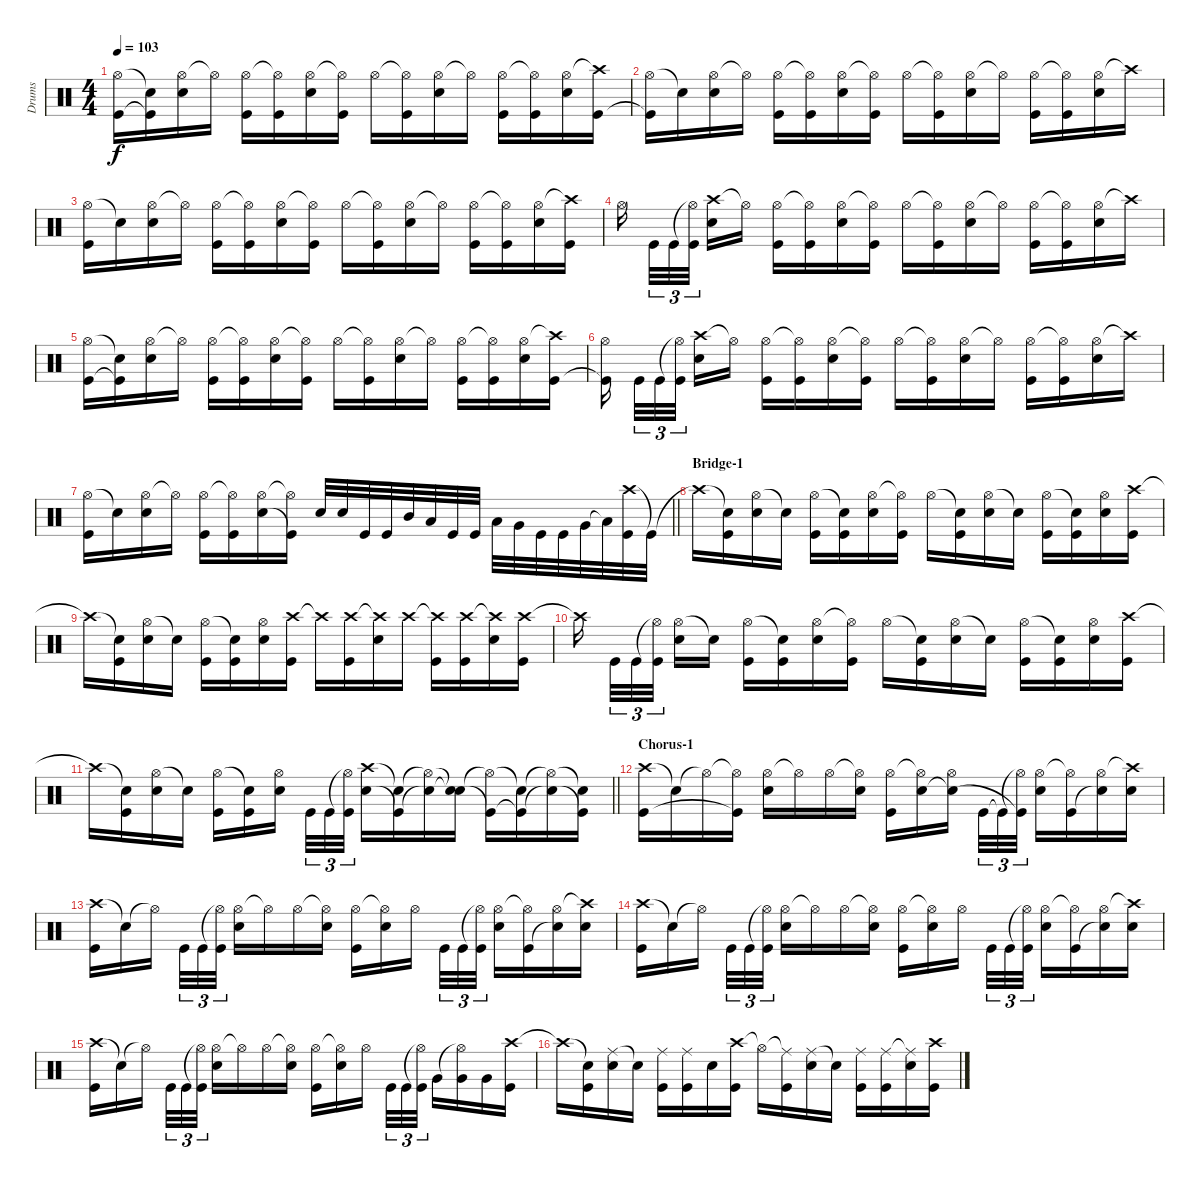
\track ("Drums" "Drums") {instrument percussion}
\staff {score}
\articulation defaults
\ts (4 4)
\tempo 103
\clef neutral
\ks c
("Hi-Hat (open)" "Kick (hit)").16{dy f} ("Snare (hit)"{t} "Kick (hit)"{t}).16 ("Hi-Hat (open)" "Electric Snare (hit)").16 "Hi-Hat (open)"{t}.16 ("Hi-Hat (open)" "Kick (hit)").16 ("Hi-Hat (open)"{t} "Kick (hit)").16 ("Hi-Hat (open)" "Electric Snare (hit)").16 ("Hi-Hat (open)"{t} "Kick (hit)").16 "Hi-Hat (open)".16 ("Hi-Hat (open)"{t} "Kick (hit)").16 ("Hi-Hat (open)" "Electric Snare (hit)").16 "Hi-Hat (open)"{t}.16 ("Hi-Hat (open)" "Kick (hit)").16 ("Hi-Hat (open)"{t} "Kick (hit)").16 ("Hi-Hat (open)" "Electric Snare (hit)").16 ("Crash high (hit)"{t} "Kick (hit)").16 |
("Hi-Hat (open)" "Kick (hit)"{t}).16 "Snare (hit)"{t}.16 ("Hi-Hat (open)" "Electric Snare (hit)").16 "Hi-Hat (open)"{t}.16 ("Hi-Hat (open)" "Kick (hit)").16 ("Hi-Hat (open)"{t} "Kick (hit)").16 ("Hi-Hat (open)" "Electric Snare (hit)").16 ("Hi-Hat (open)"{t} "Kick (hit)").16 "Hi-Hat (open)".16 ("Hi-Hat (open)"{t} "Kick (hit)").16 ("Hi-Hat (open)" "Electric Snare (hit)").16 "Hi-Hat (open)"{t}.16 ("Hi-Hat (open)" "Kick (hit)").16 ("Hi-Hat (open)"{t} "Kick (hit)").16 ("Hi-Hat (open)" "Electric Snare (hit)").16 "Crash high (hit)"{t}.16 |
("Hi-Hat (open)" "Kick (hit)").16 "Snare (hit)"{t}.16 ("Hi-Hat (open)" "Electric Snare (hit)").16 "Hi-Hat (open)"{t}.16 ("Hi-Hat (open)" "Kick (hit)").16 ("Hi-Hat (open)"{t} "Kick (hit)").16 ("Hi-Hat (open)" "Electric Snare (hit)").16 ("Hi-Hat (open)"{t} "Kick (hit)").16 "Hi-Hat (open)".16 ("Hi-Hat (open)"{t} "Kick (hit)").16 ("Hi-Hat (open)" "Electric Snare (hit)").16 "Hi-Hat (open)"{t}.16 ("Hi-Hat (open)" "Kick (hit)").16 ("Hi-Hat (open)"{t} "Kick (hit)").16 ("Hi-Hat (open)" "Electric Snare (hit)").16 ("Crash high (hit)"{t} "Kick (hit)").16 |
"Hi-Hat (open)".16 "Kick (hit)".32{tu (3 2)} "Kick (hit)".32{tu (3 2)} ("Hi-Hat (open)"{t} "Kick (hit)").32{tu (3 2)} ("Crash high (hit)" "Electric Snare (hit)").16 "Hi-Hat (open)"{t}.16 ("Hi-Hat (open)" "Kick (hit)").16 ("Hi-Hat (open)"{t} "Kick (hit)").16 ("Hi-Hat (open)" "Electric Snare (hit)").16 ("Hi-Hat (open)"{t} "Kick (hit)").16 "Hi-Hat (open)".16 ("Hi-Hat (open)"{t} "Kick (hit)").16 ("Hi-Hat (open)" "Electric Snare (hit)").16 "Hi-Hat (open)"{t}.16 ("Hi-Hat (open)" "Kick (hit)").16 ("Hi-Hat (open)"{t} "Kick (hit)").16 ("Hi-Hat (open)" "Electric Snare (hit)").16 "Crash high (hit)"{t}.16 |
("Hi-Hat (open)" "Kick (hit)").16 ("Snare (hit)"{t} "Kick (hit)"{t}).16 ("Hi-Hat (open)" "Electric Snare (hit)").16 "Hi-Hat (open)"{t}.16 ("Hi-Hat (open)" "Kick (hit)").16 ("Hi-Hat (open)"{t} "Kick (hit)").16 ("Hi-Hat (open)" "Electric Snare (hit)").16 ("Hi-Hat (open)"{t} "Kick (hit)").16 "Hi-Hat (open)".16 ("Hi-Hat (open)"{t} "Kick (hit)").16 ("Hi-Hat (open)" "Electric Snare (hit)").16 "Hi-Hat (open)"{t}.16 ("Hi-Hat (open)" "Kick (hit)").16 ("Hi-Hat (open)"{t} "Kick (hit)").16 ("Hi-Hat (open)" "Electric Snare (hit)").16 ("Crash high (hit)"{t} "Kick (hit)").16 |
("Hi-Hat (open)" "Kick (hit)"{t}).16 "Kick (hit)".32{tu (3 2)} "Kick (hit)".32{tu (3 2)} ("Hi-Hat (open)"{t} "Kick (hit)").32{tu (3 2)} ("Crash high (hit)" "Electric Snare (hit)").16 "Hi-Hat (open)"{t}.16 ("Hi-Hat (open)" "Kick (hit)").16 ("Hi-Hat (open)"{t} "Kick (hit)").16 ("Hi-Hat (open)" "Electric Snare (hit)").16 ("Hi-Hat (open)"{t} "Kick (hit)").16 "Hi-Hat (open)".16 ("Hi-Hat (open)"{t} "Kick (hit)").16 ("Hi-Hat (open)" "Electric Snare (hit)").16 "Hi-Hat (open)"{t}.16 ("Hi-Hat (open)" "Kick (hit)").16 ("Hi-Hat (open)"{t} "Kick (hit)").16 ("Hi-Hat (open)" "Electric Snare (hit)").16 "Crash high (hit)"{t}.16 |
\barLineRight lightlight
("Hi-Hat (open)" "Kick (hit)").16 "Snare (hit)"{t}.16 ("Hi-Hat (open)" "Electric Snare (hit)").16 "Hi-Hat (open)"{t}.16 ("Hi-Hat (open)" "Kick (hit)").16 ("Hi-Hat (open)"{t} "Kick (hit)").16 ("Hi-Hat (open)" "Electric Snare (hit)").16 ("Hi-Hat (open)"{t} "Kick (hit)"{t}).16 "Electric Snare (hit)".32 "Electric Snare (hit)".32 "Kick (hit)".32 "Kick (hit)".32 "Mid Tom (hit)".32 "Low Tom (hit)".32 "Kick (hit)".32 "Kick (hit)".32 "Low Tom (hit)".32 "Very Low Tom (hit)".32 "Kick (hit)".32 "Kick (hit)".32 "Very Low Tom (hit)".32 "Low Floor Tom (hit)"{t}.32 ("Crash high (hit)" "Kick (hit)").32 "Kick (hit)"{t}.32 |
\section ("" "Bridge-1")
"Crash high (hit)"{t}.16 ("Snare (hit)"{t} "Kick (hit)").16 ("Hi-Hat (open)" "Electric Snare (hit)").16 "Snare (hit)"{t}.16 ("Hi-Hat (open)" "Kick (hit)").16 ("Snare (hit)"{t} "Kick (hit)").16 ("Hi-Hat (open)" "Electric Snare (hit)").16 ("Hi-Hat (open)"{t} "Kick (hit)").16 "Hi-Hat (open)".16 ("Snare (hit)"{t} "Kick (hit)").16 ("Hi-Hat (open)" "Electric Snare (hit)").16 "Snare (hit)"{t}.16 ("Hi-Hat (open)" "Kick (hit)").16 ("Snare (hit)"{t} "Kick (hit)").16 ("Hi-Hat (open)" "Electric Snare (hit)").16 ("Crash high (hit)" "Kick (hit)").16 |
"Crash high (hit)"{t}.16 ("Snare (hit)"{t} "Kick (hit)").16 ("Hi-Hat (open)" "Electric Snare (hit)").16 "Snare (hit)"{t}.16 ("Hi-Hat (open)" "Kick (hit)").16 ("Snare (hit)"{t} "Kick (hit)").16 ("Hi-Hat (open)" "Electric Snare (hit)").16 ("Crash high (hit)" "Kick (hit)").16 "Crash high (hit)"{t}.16 ("Crash high (hit)" "Kick (hit)").16 ("Crash high (hit)"{t} "Electric Snare (hit)").16 "Crash high (hit)".16 ("Crash high (hit)"{t} "Kick (hit)").16 ("Crash high (hit)" "Kick (hit)").16 ("Crash high (hit)"{t} "Electric Snare (hit)").16 ("Crash high (hit)" "Kick (hit)").16 |
"Crash high (hit)"{t}.16 "Kick (hit)".32{tu (3 2)} "Kick (hit)".32{tu (3 2)} ("Hi-Hat (open)"{t} "Kick (hit)").32{tu (3 2)} ("Hi-Hat (open)" "Electric Snare (hit)").16 "Snare (hit)"{t}.16 ("Hi-Hat (open)" "Kick (hit)").16 ("Snare (hit)"{t} "Kick (hit)").16 ("Hi-Hat (open)" "Electric Snare (hit)").16 ("Hi-Hat (open)"{t} "Kick (hit)").16 "Hi-Hat (open)".16 ("Snare (hit)"{t} "Kick (hit)").16 ("Hi-Hat (open)" "Electric Snare (hit)").16 "Snare (hit)"{t}.16 ("Hi-Hat (open)" "Kick (hit)").16 ("Snare (hit)"{t} "Kick (hit)").16 ("Hi-Hat (open)" "Electric Snare (hit)").16 ("Crash high (hit)" "Kick (hit)").16 |
\barLineRight lightlight "Crash high (hit)"{t}.16
("Snare (hit)"{t} "Kick (hit)").16 ("Hi-Hat (open)" "Electric Snare (hit)").16 "Snare (hit)"{t}.16 ("Hi-Hat (open)" "Kick (hit)").16 ("Snare (hit)"{t} "Kick (hit)").16 ("Hi-Hat (open)" "Electric Snare (hit)").16 "Kick (hit)".32{tu (3 2)} "Kick (hit)".32{tu (3 2)} ("Hi-Hat (open)"{t} "Kick (hit)").32{tu (3 2)} ("Crash high (hit)" "Electric Snare (hit)").16 ("Snare (hit)"{t} "Kick (hit)"{t}).16 ("Hi-Hat (open)"{t} "Electric Snare (hit)"{t}).16 ("Snare (hit)"{t} "Snare (hit)"{t}).16 ("Hi-Hat (open)"{t} "Kick (hit)"{t}).16 ("Snare (hit)"{t} "Kick (hit)"{t}).16 ("Hi-Hat (open)"{t} "Electric Snare (hit)"{t}).16 ("Snare (hit)"{t} "Kick (hit)"{t}).16 |
\section ("" "Chorus-1")
("Crash high (hit)" "Kick (hit)").16 "Snare (hit)"{t}.16 "Hi-Hat (open)"{t}.16 ("Hi-Hat (open)"{t} "Kick (hit)"{t}).16 ("Hi-Hat (open)" "Electric Snare (hit)").16 "Hi-Hat (open)"{t}.16 "Hi-Hat (open)".16 ("Hi-Hat (open)"{t} "Electric Snare (hit)").16 ("Hi-Hat (open)" "Kick (hit)").16 ("Hi-Hat (open)"{t} "Electric Snare (hit)").16 ("Hi-Hat (open)" "Electric Snare (hit)"{t}).16 "Kick (hit)".32{tu (3 2)} "Kick (hit)"{t}.32{tu (3 2)} ("Hi-Hat (open)"{t} "Kick (hit)"{t}).32{tu (3 2)} ("Hi-Hat (open)" "Electric Snare (hit)").16 ("Hi-Hat (open)"{t} "Kick (hit)").16 ("Hi-Hat (open)" "Electric Snare (hit)"{t}).16 ("Crash high (hit)"{t} "Electric Snare (hit)").16 |
("Crash high (hit)" "Kick (hit)").16 "Snare (hit)"{t}.16 "Hi-Hat (open)"{t}.16 "Kick (hit)".32{tu (3 2)} "Kick (hit)".32{tu (3 2)} ("Hi-Hat (open)"{t} "Kick (hit)").32{tu (3 2)} ("Hi-Hat (open)" "Electric Snare (hit)").16 "Hi-Hat (open)"{t}.16 "Hi-Hat (open)".16 ("Hi-Hat (open)"{t} "Electric Snare (hit)").16 ("Hi-Hat (open)" "Kick (hit)").16 ("Hi-Hat (open)"{t} "Electric Snare (hit)").16 "Hi-Hat (open)".16 "Kick (hit)".32{tu (3 2)} "Kick (hit)".32{tu (3 2)} ("Hi-Hat (open)"{t} "Kick (hit)").32{tu (3 2)} ("Hi-Hat (open)" "Electric Snare (hit)").16 ("Hi-Hat (open)"{t} "Kick (hit)").16 ("Hi-Hat (open)" "Electric Snare (hit)"{t}).16 ("Crash high (hit)"{t} "Electric Snare (hit)").16 |
("Crash high (hit)" "Kick (hit)").16 "Snare (hit)"{t}.16 "Hi-Hat (open)"{t}.16 "Kick (hit)".32{tu (3 2)} "Kick (hit)".32{tu (3 2)} ("Hi-Hat (open)"{t} "Kick (hit)").32{tu (3 2)} ("Hi-Hat (open)" "Electric Snare (hit)").16 "Hi-Hat (open)"{t}.16 "Hi-Hat (open)".16 ("Hi-Hat (open)"{t} "Electric Snare (hit)").16 ("Hi-Hat (open)" "Kick (hit)").16 ("Hi-Hat (open)"{t} "Electric Snare (hit)").16 "Hi-Hat (open)".16 "Kick (hit)".32{tu (3 2)} "Kick (hit)".32{tu (3 2)} ("Hi-Hat (open)"{t} "Kick (hit)").32{tu (3 2)} ("Hi-Hat (open)" "Electric Snare (hit)").16 ("Hi-Hat (open)"{t} "Kick (hit)").16 ("Hi-Hat (open)" "Electric Snare (hit)"{t}).16 ("Crash high (hit)"{t} "Electric Snare (hit)").16 |
("Crash high (hit)" "Kick (hit)").16 "Snare (hit)"{t}.16 "Hi-Hat (open)"{t}.16 "Kick (hit)".32{tu (3 2)} "Kick (hit)".32{tu (3 2)} ("Hi-Hat (open)"{t} "Kick (hit)").32{tu (3 2)} ("Hi-Hat (open)" "Electric Snare (hit)").16 "Hi-Hat (open)"{t}.16 "Hi-Hat (open)".16 ("Hi-Hat (open)"{t} "Electric Snare (hit)").16 ("Hi-Hat (open)" "Kick (hit)").16 ("Hi-Hat (open)"{t} "Electric Snare (hit)").16 "Hi-Hat (open)".16 "Kick (hit)".32{tu (3 2)} "Kick (hit)".32{tu (3 2)} ("Hi-Hat (open)"{t} "Kick (hit)").32{tu (3 2)} "Very Low Tom (hit)".16 ("Hi-Hat (open)"{t} "Very Low Tom (hit)").16 "Very Low Tom (hit)".16 ("Crash high (hit)" "Kick (hit)").16 |
"Crash high (hit)"{t}.16 ("Snare (hit)"{t} "Kick (hit)").16 ("Ride (middle)" "Electric Snare (hit)").16 "Snare (hit)"{t}.16 ("Ride (middle)" "Kick (hit)").16 ("Ride (middle)" "Kick (hit)").16 "Electric Snare (hit)".16 ("Crash high (hit)" "Kick (hit)").16 "Hi-Hat (open)"{t}.16 ("Ride (middle)"{t} "Kick (hit)").16 ("Ride (middle)" "Electric Snare (hit)").16 "Snare (hit)"{t}.16 ("Ride (middle)" "Kick (hit)").16 ("Ride (middle)" "Kick (hit)").16 ("Ride (middle)"{t} "Electric Snare (hit)").16 ("Crash high (hit)" "Kick (hit)").16
